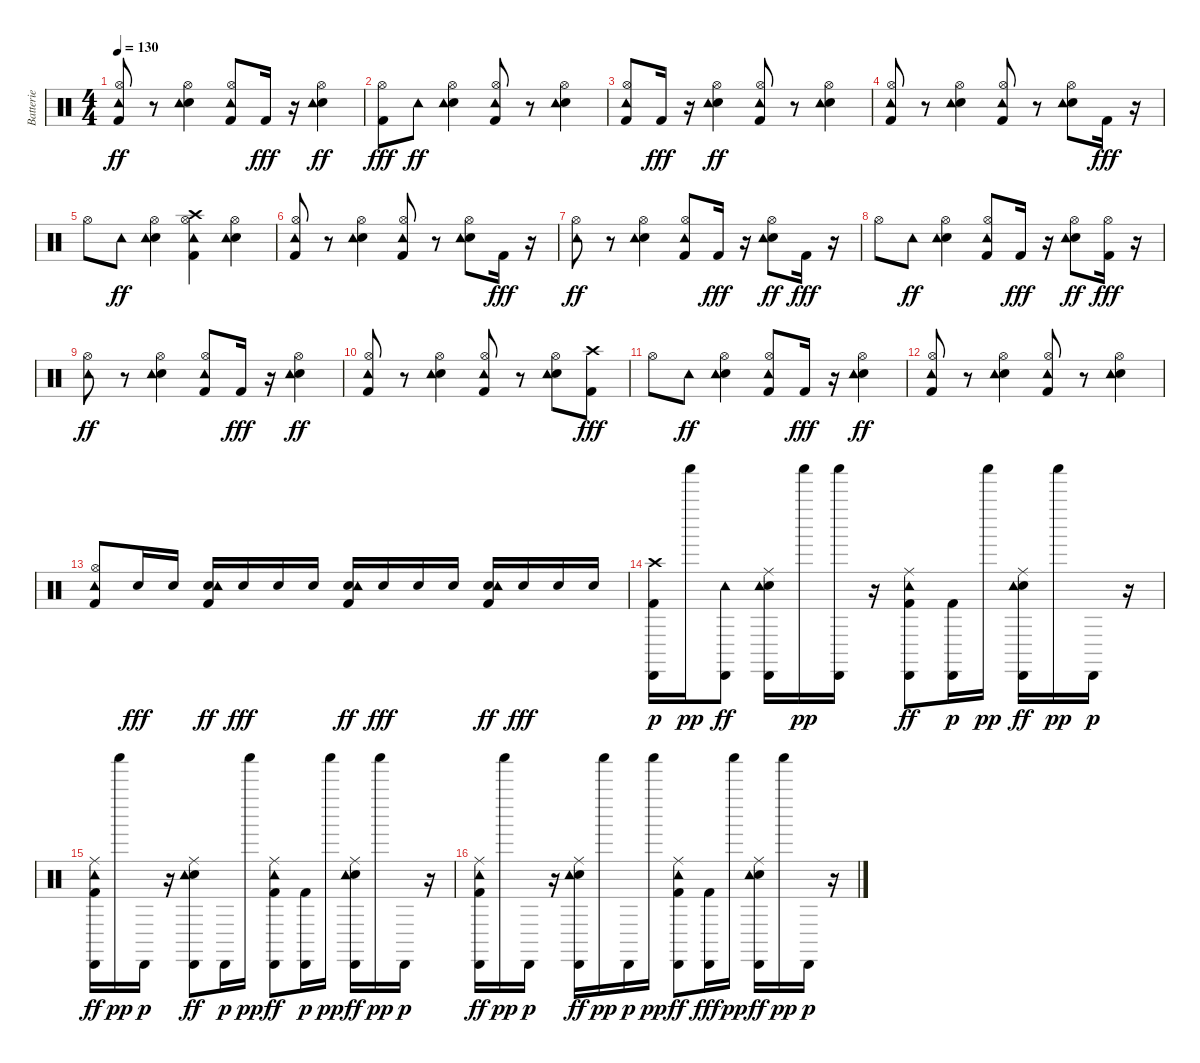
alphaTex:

\track ("Batterie" "Batterie") {instrument percussion}
\staff {score}
\articulation defaults
\ts (4 4)
\tempo 130
\clef neutral
\ks c
("Kick (hit) 2" "Hi-Hat (open)" "Tambourine (hit)").8{dy ff} r.8 ("Snare (hit) 2" "Hi-Hat (open)" "Tambourine (hit)").4 ("Kick (hit) 2" "Hi-Hat (open)" "Tambourine (hit)").8 "Kick (hit) 2".16{dy fff} r.16 ("Snare (hit) 2" "Hi-Hat (open)" "Tambourine (hit)").4{dy ff} |
("Kick (hit) 2" "Hi-Hat (open)").8{dy fff} "Tambourine (hit)".8{dy ff} ("Snare (hit) 2" "Hi-Hat (open)" "Tambourine (hit)").4 ("Kick (hit) 2" "Hi-Hat (open)" "Tambourine (hit)").8 r.8 ("Snare (hit) 2" "Hi-Hat (open)" "Tambourine (hit)").4 |
("Kick (hit) 2" "Hi-Hat (open)" "Tambourine (hit)").8 "Kick (hit) 2".16{dy fff} r.16 ("Hi-Hat (open)" "Snare (hit) 2" "Tambourine (hit)").4{dy ff} ("Kick (hit) 2" "Hi-Hat (open)" "Tambourine (hit)").8 r.8 ("Snare (hit) 2" "Hi-Hat (open)" "Tambourine (hit)").4 |
("Kick (hit) 2" "Hi-Hat (open)" "Tambourine (hit)").8 r.8 ("Snare (hit) 2" "Hi-Hat (open)" "Tambourine (hit)").4 ("Kick (hit) 2" "Hi-Hat (open)" "Tambourine (hit)").8 r.8 ("Snare (hit) 2" "Hi-Hat (open)" "Tambourine (hit)").8 "Kick (hit) 2".16{dy fff} r.16 |
"Hi-Hat (open)".8 "Tambourine (hit)".8{dy ff} ("Hi-Hat (open)" "Snare (hit) 2" "Tambourine (hit)").4 ("Crash high (hit)" "Kick (hit) 2" "Hi-Hat (open)" "Tambourine (hit)").4 ("Snare (hit) 2" "Hi-Hat (open)" "Tambourine (hit)").4 |
("Kick (hit) 2" "Hi-Hat (open)" "Tambourine (hit)").8 r.8 ("Snare (hit) 2" "Hi-Hat (open)" "Tambourine (hit)").4 ("Kick (hit) 2" "Hi-Hat (open)" "Tambourine (hit)").8 r.8 ("Snare (hit) 2" "Hi-Hat (open)" "Tambourine (hit)").8 "Kick (hit) 2".16{dy fff} r.16 |
("Hi-Hat (open)" "Tambourine (hit)").8{dy ff} r.8 ("Snare (hit) 2" "Hi-Hat (open)" "Tambourine (hit)").4 ("Kick (hit) 2" "Hi-Hat (open)" "Tambourine (hit)").8 "Kick (hit) 2".16{dy fff} r.16 ("Snare (hit) 2" "Hi-Hat (open)" "Tambourine (hit)").8{dy ff} "Kick (hit) 2".16{dy fff} r.16 |
"Hi-Hat (open)".8 "Tambourine (hit)".8{dy ff} ("Snare (hit) 2" "Hi-Hat (open)" "Tambourine (hit)").4 ("Kick (hit) 2" "Hi-Hat (open)" "Tambourine (hit)").8 "Kick (hit) 2".16{dy fff} r.16 ("Hi-Hat (open)" "Snare (hit) 2" "Tambourine (hit)").8{dy ff} ("Hi-Hat (open)" "Kick (hit) 2").16{dy fff} r.16 |
("Hi-Hat (open)" "Tambourine (hit)").8{dy ff} r.8 ("Snare (hit) 2" "Hi-Hat (open)" "Tambourine (hit)").4 ("Kick (hit) 2" "Hi-Hat (open)" "Tambourine (hit)").8 "Kick (hit) 2".16{dy fff} r.16 ("Snare (hit) 2" "Hi-Hat (open)" "Tambourine (hit)").4{dy ff} |
("Kick (hit) 2" "Hi-Hat (open)" "Tambourine (hit)").8 r.8 ("Snare (hit) 2" "Hi-Hat (open)" "Tambourine (hit)").4 ("Kick (hit) 2" "Hi-Hat (open)" "Tambourine (hit)").8 r.8 ("Snare (hit) 2" "Hi-Hat (open)" "Tambourine (hit)").8 ("Crash high (hit)" "Kick (hit) 2").8{dy fff} |
"Hi-Hat (open)".8 "Tambourine (hit)".8{dy ff} ("Snare (hit) 2" "Hi-Hat (open)" "Tambourine (hit)").4 ("Kick (hit) 2" "Hi-Hat (open)" "Tambourine (hit)").8 "Kick (hit) 2".16{dy fff} r.16 ("Snare (hit) 2" "Hi-Hat (open)" "Tambourine (hit)").4{dy ff} |
("Kick (hit) 2" "Hi-Hat (open)" "Tambourine (hit)").8 r.8 ("Hi-Hat (open)" "Snare (hit) 2" "Tambourine (hit)").4 ("Kick (hit) 2" "Hi-Hat (open)" "Tambourine (hit)").8 r.8 ("Snare (hit) 2" "Hi-Hat (open)" "Tambourine (hit)").4 |
("Kick (hit) 2" "Hi-Hat (open)" "Tambourine (hit)").8 "Snare (hit) 2".16{dy fff} "Snare (hit) 2".16 ("Kick (hit) 2" "Snare (hit) 2" "Tambourine (hit)").16{dy ff} "Snare (hit) 2".16{dy fff} "Snare (hit) 2".16 "Snare (hit) 2".16 ("Snare (hit) 2" "Kick (hit) 2" "Tambourine (hit)").16{dy ff} "Snare (hit) 2".16{dy fff} "Snare (hit) 2".16 "Snare (hit) 2".16 ("Kick (hit) 2" "Snare (hit) 2" "Tambourine (hit)").16{dy ff} "Snare (hit) 2".16{dy fff} "Snare (hit) 2".16 "Snare (hit) 2".16 |
("Kick (hit) 2" "Crash high (hit)" "Cabasa (hit)").16{dy p} "Shaker (hit)".16{dy pp} ("Cabasa (hit)" "Tambourine (hit)").8{dy ff} ("Ride (middle)" "Snare (hit) 2" "Cabasa (hit)" "Tambourine (hit)").16 "Shaker (hit)".16{dy pp} ("Cabasa (hit)" "Shaker (hit)").16 r.16 ("Cabasa (hit)" "Kick (hit) 2" "Ride (middle)" "Tambourine (hit)").8{dy ff} ("Kick (hit) 2" "Cabasa (hit)").16{dy p} "Shaker (hit)".16{dy pp} ("Ride (middle)" "Snare (hit) 2" "Cabasa (hit)" "Tambourine (hit)").16{dy ff} "Shaker (hit)".16{dy pp} "Cabasa (hit)".16{dy p} r.16 |
("Kick (hit) 2" "Ride (middle)" "Cabasa (hit)" "Tambourine (hit)").16{dy ff} "Shaker (hit)".16{dy pp} "Cabasa (hit)".16{dy p} r.16 ("Cabasa (hit)" "Ride (middle)" "Snare (hit) 2" "Tambourine (hit)").8{dy ff} "Cabasa (hit)".16{dy p} "Shaker (hit)".16{dy pp} ("Kick (hit) 2" "Ride (middle)" "Cabasa (hit)" "Tambourine (hit)").8{dy ff} ("Kick (hit) 2" "Cabasa (hit)").16{dy p} "Shaker (hit)".16{dy pp} ("Ride (middle)" "Snare (hit) 2" "Cabasa (hit)" "Tambourine (hit)").16{dy ff} "Shaker (hit)".16{dy pp} "Cabasa (hit)".16{dy p} r.16 |
("Ride (middle)" "Kick (hit) 2" "Cabasa (hit)" "Tambourine (hit)").16{dy ff} "Shaker (hit)".16{dy pp} "Cabasa (hit)".16{dy p} r.16 ("Cabasa (hit)" "Snare (hit) 2" "Ride (middle)" "Tambourine (hit)").16{dy ff} "Shaker (hit)".16{dy pp} "Cabasa (hit)".16{dy p} "Shaker (hit)".16{dy pp} ("Cabasa (hit)" "Ride (middle)" "Kick (hit) 2" "Tambourine (hit)").8{dy ff} ("Cabasa (hit)" "Kick (hit) 2").16{dy fff} "Shaker (hit)".16{dy pp} ("Cabasa (hit)" "Ride (middle)" "Snare (hit) 2" "Tambourine (hit)").16{dy ff} "Shaker (hit)".16{dy pp} "Cabasa (hit)".16{dy p} r.16
